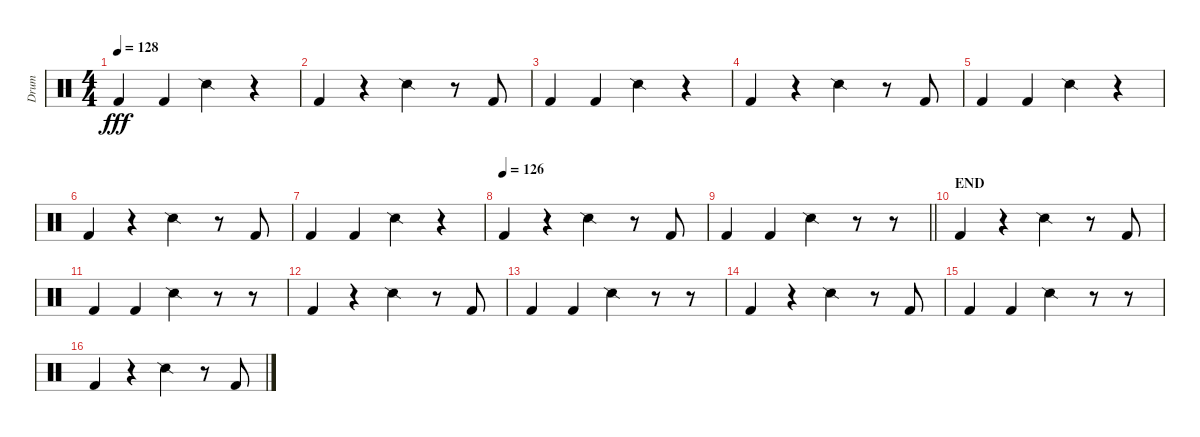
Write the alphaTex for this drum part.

\track ("Drum" "Drum") {instrument percussion}
\staff {score}
\articulation defaults
\ts (4 4)
\tempo 128
\clef neutral
\ks c "Kick (hit) 2".4{dy fff} "Kick (hit) 2".4 "Snare (side stick) 2".4
r.4 |
"Kick (hit) 2".4 r.4 "Snare (side stick) 2".4 r.8 "Kick (hit) 2".8 |
"Kick (hit) 2".4 "Kick (hit) 2".4 "Snare (side stick) 2".4 r.4 |
"Kick (hit) 2".4 r.4 "Snare (side stick) 2".4 r.8 "Kick (hit) 2".8 |
"Kick (hit) 2".4 "Kick (hit) 2".4 "Snare (side stick) 2".4 r.4 |
"Kick (hit) 2".4 r.4 "Snare (side stick) 2".4 r.8 "Kick (hit) 2".8 |
"Kick (hit) 2".4 "Kick (hit) 2".4 "Snare (side stick) 2".4 r.4 |
\tempo (126)
"Kick (hit) 2".4 r.4 "Snare (side stick) 2".4 r.8 "Kick (hit) 2".8 |
\barLineRight lightlight "Kick (hit) 2".4 "Kick (hit) 2".4 "Snare (side stick) 2".4
r.8 r.8 |
\section ("" "END")
"Kick (hit) 2".4 r.4 "Snare (side stick) 2".4 r.8 "Kick (hit) 2".8 |
"Kick (hit) 2".4 "Kick (hit) 2".4 "Snare (side stick) 2".4 r.8 r.8 |
"Kick (hit) 2".4 r.4 "Snare (side stick) 2".4 r.8 "Kick (hit) 2".8 |
"Kick (hit) 2".4 "Kick (hit) 2".4 "Snare (side stick) 2".4 r.8 r.8 |
"Kick (hit) 2".4 r.4 "Snare (side stick) 2".4 r.8 "Kick (hit) 2".8 |
"Kick (hit) 2".4 "Kick (hit) 2".4 "Snare (side stick) 2".4 r.8 r.8 |
"Kick (hit) 2".4 r.4 "Snare (side stick) 2".4 r.8 "Kick (hit) 2".8
